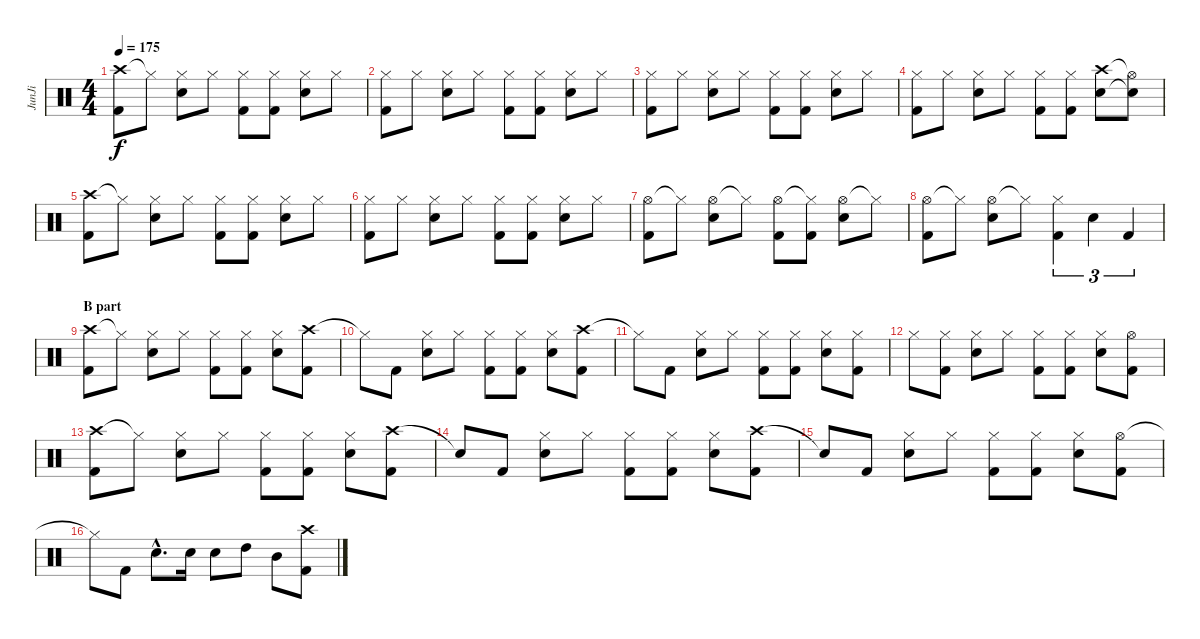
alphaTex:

\track ("JunJi" "JunJi") {instrument percussion}
\staff {score}
\articulation defaults
\ts (4 4)
\tempo 175
\clef neutral
\ks c
("Crash high (hit)" "Kick (hit) 2").8{dy f} "Hi-Hat (closed)"{t}.8 ("Hi-Hat (closed)" "Snare (hit) 2").8 "Hi-Hat (closed)".8 ("Hi-Hat (closed)" "Kick (hit) 2").8 ("Hi-Hat (closed)" "Kick (hit) 2").8 ("Hi-Hat (closed)" "Snare (hit) 2").8 "Hi-Hat (closed)".8 |
("Hi-Hat (closed)" "Kick (hit) 2").8 "Hi-Hat (closed)".8 ("Hi-Hat (closed)" "Snare (hit) 2").8 "Hi-Hat (closed)".8 ("Hi-Hat (closed)" "Kick (hit) 2").8 ("Hi-Hat (closed)" "Kick (hit) 2").8 ("Hi-Hat (closed)" "Snare (hit) 2").8 "Hi-Hat (closed)".8 |
("Hi-Hat (closed)" "Kick (hit) 2").8 "Hi-Hat (closed)".8 ("Hi-Hat (closed)" "Snare (hit) 2").8 "Hi-Hat (closed)".8 ("Hi-Hat (closed)" "Kick (hit) 2").8 ("Hi-Hat (closed)" "Kick (hit) 2").8 ("Hi-Hat (closed)" "Snare (hit) 2").8 "Hi-Hat (closed)".8 |
("Hi-Hat (closed)" "Kick (hit) 2").8 "Hi-Hat (closed)".8 ("Hi-Hat (closed)" "Snare (hit) 2").8 "Hi-Hat (closed)".8 ("Hi-Hat (closed)" "Kick (hit) 2").8 ("Hi-Hat (closed)" "Kick (hit) 2").8 ("Crash high (hit)" "Snare (hit) 2").8 ("Hi-Hat (open)"{t} "Snare (hit)"{t}).8 |
("Crash high (hit)" "Kick (hit) 2").8 "Hi-Hat (closed)"{t}.8 ("Hi-Hat (closed)" "Snare (hit) 2").8 "Hi-Hat (closed)".8 ("Hi-Hat (closed)" "Kick (hit) 2").8 ("Hi-Hat (closed)" "Kick (hit) 2").8 ("Hi-Hat (closed)" "Snare (hit) 2").8 "Hi-Hat (closed)".8 |
("Hi-Hat (closed)" "Kick (hit) 2").8 "Hi-Hat (closed)".8 ("Hi-Hat (closed)" "Snare (hit) 2").8 "Hi-Hat (closed)".8 ("Hi-Hat (closed)" "Kick (hit) 2").8 ("Hi-Hat (closed)" "Kick (hit) 2").8 ("Hi-Hat (closed)" "Snare (hit) 2").8 "Hi-Hat (closed)".8 |
("Hi-Hat (open)" "Kick (hit) 2").8 "Hi-Hat (closed)"{t}.8 ("Hi-Hat (open)" "Snare (hit) 2").8 "Hi-Hat (closed)"{t}.8 ("Hi-Hat (open)" "Kick (hit) 2").8 ("Hi-Hat (closed)"{t} "Kick (hit) 2").8 ("Hi-Hat (open)" "Snare (hit) 2").8 "Hi-Hat (closed)"{t}.8 |
("Hi-Hat (open)" "Kick (hit) 2").8 "Hi-Hat (closed)"{t}.8 ("Hi-Hat (open)" "Snare (hit) 2").8 "Hi-Hat (closed)"{t}.8 ("Hi-Hat (closed)" "Kick (hit) 2").4{tu (3 2)} "Snare (hit) 2".4{tu (3 2)} "Kick (hit) 2".4{tu (3 2)} |
\section ("" "B part")
("Crash high (hit)" "Kick (hit) 2").8 "Hi-Hat (closed)"{t}.8 ("Hi-Hat (closed)" "Snare (hit) 2").8 "Hi-Hat (closed)".8 ("Hi-Hat (closed)" "Kick (hit) 2").8 ("Hi-Hat (closed)" "Kick (hit) 2").8 ("Hi-Hat (closed)" "Snare (hit) 2").8 ("Crash high (hit)" "Kick (hit) 2").8 |
"Hi-Hat (closed)"{t}.8 "Kick (hit) 2".8 ("Hi-Hat (closed)" "Snare (hit) 2").8 "Hi-Hat (closed)".8 ("Hi-Hat (closed)" "Kick (hit) 2").8 ("Hi-Hat (closed)" "Kick (hit) 2").8 ("Hi-Hat (closed)" "Snare (hit) 2").8 ("Crash high (hit)" "Kick (hit) 2").8 |
"Hi-Hat (closed)"{t}.8 "Kick (hit) 2".8 ("Hi-Hat (closed)" "Snare (hit) 2").8 "Hi-Hat (closed)".8 ("Hi-Hat (closed)" "Kick (hit) 2").8 ("Hi-Hat (closed)" "Kick (hit) 2").8 ("Hi-Hat (closed)" "Snare (hit) 2").8 ("Hi-Hat (closed)" "Kick (hit) 2").8 |
"Hi-Hat (closed)".8 ("Hi-Hat (closed)" "Kick (hit) 2").8 ("Hi-Hat (closed)" "Snare (hit) 2").8 "Hi-Hat (closed)".8 ("Hi-Hat (closed)" "Kick (hit) 2").8 ("Hi-Hat (closed)" "Kick (hit) 2").8 ("Hi-Hat (closed)" "Snare (hit) 2").8 ("Hi-Hat (open)" "Kick (hit) 2").8 |
("Crash high (hit)" "Kick (hit) 2").8 "Hi-Hat (closed)"{t}.8 ("Hi-Hat (closed)" "Snare (hit) 2").8 "Hi-Hat (closed)".8 ("Hi-Hat (closed)" "Kick (hit) 2").8 ("Hi-Hat (closed)" "Kick (hit) 2").8 ("Hi-Hat (closed)" "Snare (hit) 2").8 ("Crash high (hit)" "Kick (hit) 2").8 |
"Snare (hit)"{t}.8 "Kick (hit) 2".8 ("Hi-Hat (closed)" "Snare (hit) 2").8 "Hi-Hat (closed)".8 ("Hi-Hat (closed)" "Kick (hit) 2").8 ("Hi-Hat (closed)" "Kick (hit) 2").8 ("Hi-Hat (closed)" "Snare (hit) 2").8 ("Crash high (hit)" "Kick (hit) 2").8 |
"Snare (hit)"{t}.8 "Kick (hit) 2".8 ("Hi-Hat (closed)" "Snare (hit) 2").8 "Hi-Hat (closed)".8 ("Hi-Hat (closed)" "Kick (hit) 2").8 ("Hi-Hat (closed)" "Kick (hit) 2").8 ("Hi-Hat (closed)" "Snare (hit) 2").8 ("Hi-Hat (open)" "Kick (hit) 2").8 |
"Hi-Hat (closed)"{t}.8 "Kick (hit) 2".8 "Snare (hit) 2"{hac}.8{d} "Snare (hit) 2".16 "Snare (hit) 2".8 "High Tom (hit)".8 "Mid Tom (hit)".8 ("Crash high (hit)" "Kick (hit) 2").8
